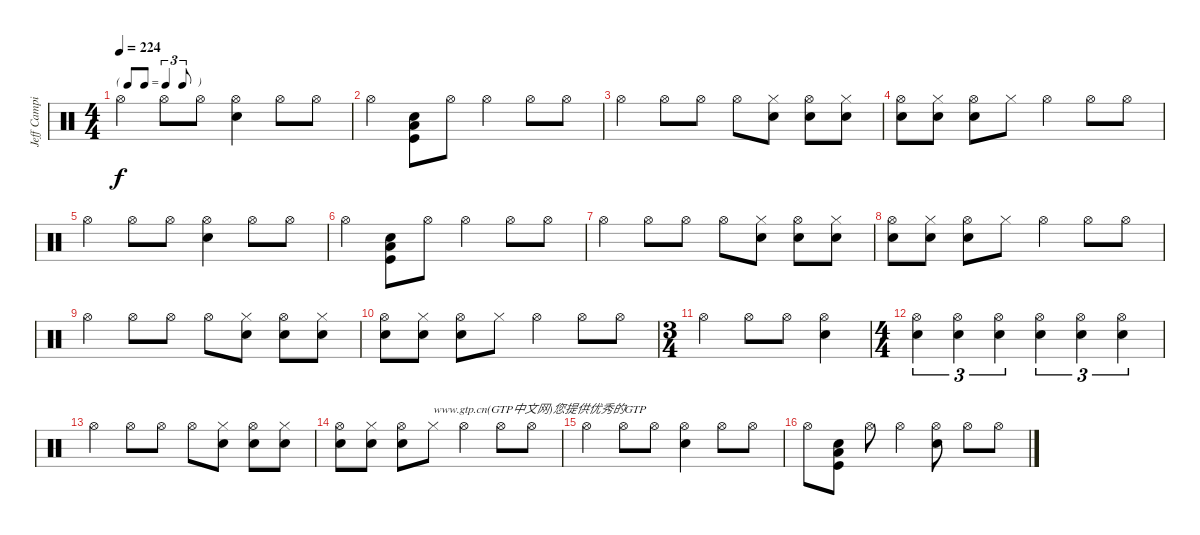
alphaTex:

\track ("Jeff Campitelli" "Jeff Campi") {instrument percussion}
\staff {score}
\articulation defaults
\ts (4 4)
\tf triplet8th
\tempo 224
\clef neutral
\ks c "Hi-Hat (open)".4{dy f} "Hi-Hat (open)".8 "Hi-Hat (open)".8
("Snare (hit) 2" "Hi-Hat (open)").4 "Hi-Hat (open)".8 "Hi-Hat (open)".8 |
"Hi-Hat (open)".4 ("Kick (hit)" "Snare (hit) 2" "Low Floor Tom (hit)").8 "Hi-Hat (open)".8 "Hi-Hat (open)".4 "Hi-Hat (open)".8 "Hi-Hat (open)".8 |
"Hi-Hat (open)".4 "Hi-Hat (open)".8 "Hi-Hat (open)".8 "Hi-Hat (open)".8 ("Hi-Hat (closed)" "Snare (hit) 2").8 ("Snare (hit) 2" "Hi-Hat (open)").8 ("Hi-Hat (closed)" "Snare (hit) 2").8 |
("Snare (hit) 2" "Hi-Hat (open)").8 ("Snare (hit) 2" "Hi-Hat (closed)").8 ("Snare (hit) 2" "Hi-Hat (open)").8 "Hi-Hat (closed)".8 "Hi-Hat (open)".4 "Hi-Hat (open)".8 "Hi-Hat (open)".8 |
"Hi-Hat (open)".4 "Hi-Hat (open)".8 "Hi-Hat (open)".8 ("Snare (hit) 2" "Hi-Hat (open)").4 "Hi-Hat (open)".8 "Hi-Hat (open)".8 |
"Hi-Hat (open)".4 ("Kick (hit)" "Snare (hit) 2" "Low Floor Tom (hit)").8 "Hi-Hat (open)".8 "Hi-Hat (open)".4 "Hi-Hat (open)".8 "Hi-Hat (open)".8 |
"Hi-Hat (open)".4 "Hi-Hat (open)".8 "Hi-Hat (open)".8 "Hi-Hat (open)".8 ("Hi-Hat (closed)" "Snare (hit) 2").8 ("Snare (hit) 2" "Hi-Hat (open)").8 ("Hi-Hat (closed)" "Snare (hit) 2").8 |
("Snare (hit) 2" "Hi-Hat (open)").8 ("Snare (hit) 2" "Hi-Hat (closed)").8 ("Snare (hit) 2" "Hi-Hat (open)").8 "Hi-Hat (closed)".8 "Hi-Hat (open)".4 "Hi-Hat (open)".8 "Hi-Hat (open)".8 |
"Hi-Hat (open)".4 "Hi-Hat (open)".8 "Hi-Hat (open)".8 "Hi-Hat (open)".8 ("Hi-Hat (closed)" "Snare (hit) 2").8 ("Snare (hit) 2" "Hi-Hat (open)").8 ("Hi-Hat (closed)" "Snare (hit) 2").8 |
("Snare (hit) 2" "Hi-Hat (open)").8 ("Snare (hit) 2" "Hi-Hat (closed)").8 ("Snare (hit) 2" "Hi-Hat (open)").8 "Hi-Hat (closed)".8 "Hi-Hat (open)".4 "Hi-Hat (open)".8 "Hi-Hat (open)".8 |
\ts (3 4)
"Hi-Hat (open)".4 "Hi-Hat (open)".8 "Hi-Hat (open)".8 ("Snare (hit) 2" "Hi-Hat (open)").4 |
\ts (4 4)
("Hi-Hat (open)" "Snare (hit) 2").4{tu (3 2)} ("Hi-Hat (open)" "Snare (hit) 2").4{tu (3 2)} ("Hi-Hat (open)" "Snare (hit) 2").4{tu (3 2)} ("Hi-Hat (open)" "Snare (hit) 2").4{tu (3 2)} ("Hi-Hat (open)" "Snare (hit) 2").4{tu (3 2)} ("Hi-Hat (open)" "Snare (hit) 2").4{tu (3 2)} |
"Hi-Hat (open)".4 "Hi-Hat (open)".8 "Hi-Hat (open)".8 "Hi-Hat (open)".8 ("Hi-Hat (closed)" "Snare (hit) 2").8 ("Snare (hit) 2" "Hi-Hat (open)").8 ("Hi-Hat (closed)" "Snare (hit) 2").8 |
("Snare (hit) 2" "Hi-Hat (open)").8 ("Snare (hit) 2" "Hi-Hat (closed)").8 ("Snare (hit) 2" "Hi-Hat (open)").8 "Hi-Hat (closed)".8{txt "www.gtp.cn(GTP中文网)您提供优秀的GTP"} "Hi-Hat (open)".4 "Hi-Hat (open)".8 "Hi-Hat (open)".8 |
"Hi-Hat (open)".4 "Hi-Hat (open)".8 "Hi-Hat (open)".8 ("Snare (hit) 2" "Hi-Hat (open)").4 "Hi-Hat (open)".8 "Hi-Hat (open)".8 |
"Hi-Hat (open)".8 ("Kick (hit)" "Snare (hit) 2" "Low Floor Tom (hit)").8 "Hi-Hat (open)".8 "Hi-Hat (open)".4 ("Snare (hit) 2" "Hi-Hat (open)").8 "Hi-Hat (open)".8 "Hi-Hat (open)".8
